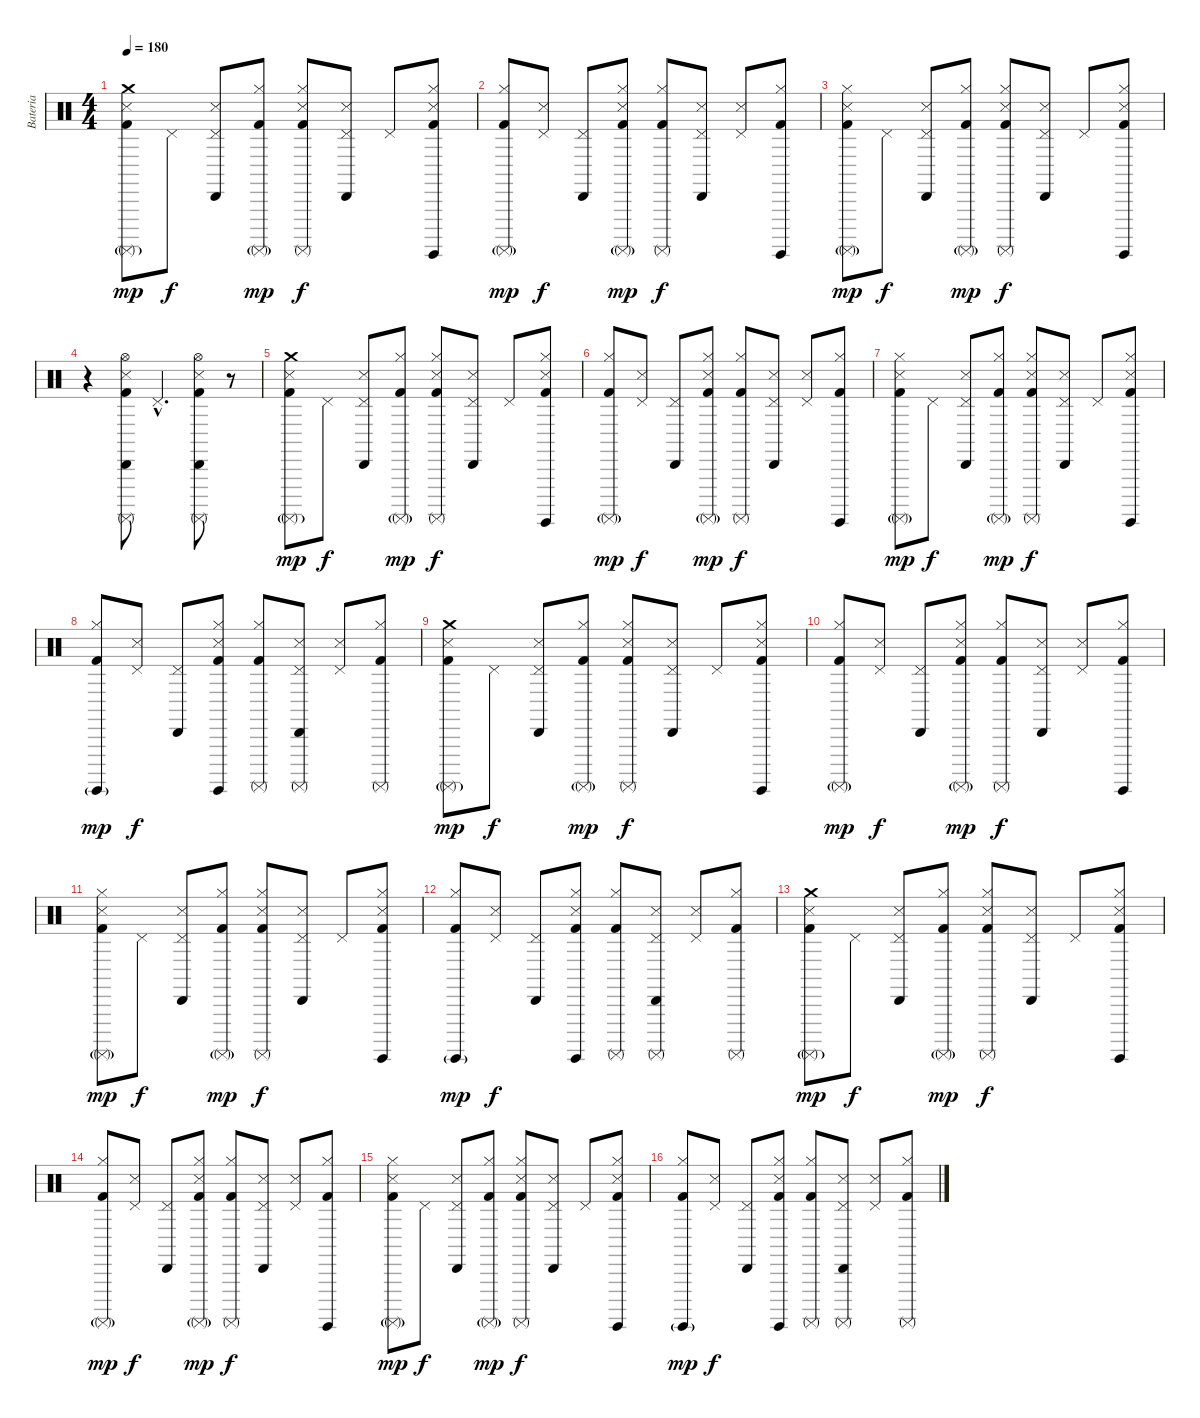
\track ("Bateria" "Bateria") {instrument percussion}
\staff {score}
\articulation defaults
\ts (4 4)
\tempo 180
\clef neutral
\ks c
("Crash medium (hit)" "Snare (side stick) 3" "Surdo (mute)"{g} "Kick (hit) 2").8{dy mp} "Pedal Hi-Hat (hit)".8{dy f} ("Pedal Hi-Hat (hit)" "Cabasa (hit)" "Snare (side stick) 3").8 ("Hi-Hat (closed)" "Surdo (mute)"{g} "Kick (hit) 2").8{dy mp} ("Hi-Hat (closed)" "Snare (side stick) 3" "Surdo (mute)" "Kick (hit) 2").8{dy f} ("Pedal Hi-Hat (hit)" "Cabasa (hit)" "Snare (side stick) 3").8 "Pedal Hi-Hat (hit)".8 ("Hi-Hat (closed)" "Snare (side stick) 3" "Surdo (hit)" "Kick (hit) 2").8 |
("Hi-Hat (closed)" "Surdo (mute)"{g} "Kick (hit) 2").8{dy mp} ("Pedal Hi-Hat (hit)" "Snare (side stick) 3").8{dy f} ("Pedal Hi-Hat (hit)" "Cabasa (hit)").8 ("Hi-Hat (closed)" "Snare (side stick) 3" "Surdo (mute)"{g} "Kick (hit) 2").8{dy mp} ("Hi-Hat (closed)" "Surdo (mute)" "Kick (hit) 2").8{dy f} ("Pedal Hi-Hat (hit)" "Cabasa (hit)" "Snare (side stick) 3").8 ("Pedal Hi-Hat (hit)" "Snare (side stick) 3").8 ("Hi-Hat (closed)" "Surdo (hit)" "Kick (hit) 2").8 |
("Hi-Hat (closed)" "Snare (side stick) 3" "Surdo (mute)"{g} "Kick (hit) 2").8{dy mp} "Pedal Hi-Hat (hit)".8{dy f} ("Pedal Hi-Hat (hit)" "Cabasa (hit)" "Snare (side stick) 3").8 ("Hi-Hat (closed)" "Surdo (mute)"{g} "Kick (hit) 2").8{dy mp} ("Hi-Hat (closed)" "Snare (side stick) 3" "Surdo (mute)" "Kick (hit) 2").8{dy f} ("Pedal Hi-Hat (hit)" "Cabasa (hit)" "Snare (side stick) 3").8 "Pedal Hi-Hat (hit)".8 ("Hi-Hat (closed)" "Snare (side stick) 3" "Surdo (hit)" "Kick (hit) 2").8 |
r.4 ("Hi-Hat (open)" "Cabasa (hit)" "Snare (side stick) 3" "Surdo (mute)" "Kick (hit) 2").8 "Pedal Hi-Hat (hit)"{hac}.4{d} ("Hi-Hat (open)" "Cabasa (hit)" "Snare (side stick) 3" "Surdo (mute)" "Kick (hit) 2").8 r.8 |
("Crash medium (hit)" "Snare (side stick) 3" "Surdo (mute)"{g} "Kick (hit) 2").8{dy mp} "Pedal Hi-Hat (hit)".8{dy f} ("Pedal Hi-Hat (hit)" "Cabasa (hit)" "Snare (side stick) 3").8 ("Hi-Hat (closed)" "Surdo (mute)"{g} "Kick (hit) 2").8{dy mp} ("Hi-Hat (closed)" "Snare (side stick) 3" "Surdo (mute)" "Kick (hit) 2").8{dy f} ("Pedal Hi-Hat (hit)" "Cabasa (hit)" "Snare (side stick) 3").8 "Pedal Hi-Hat (hit)".8 ("Hi-Hat (closed)" "Snare (side stick) 3" "Surdo (hit)" "Kick (hit) 2").8 |
("Hi-Hat (closed)" "Surdo (mute)"{g} "Kick (hit) 2").8{dy mp} ("Pedal Hi-Hat (hit)" "Snare (side stick) 3").8{dy f} ("Pedal Hi-Hat (hit)" "Cabasa (hit)").8 ("Hi-Hat (closed)" "Snare (side stick) 3" "Surdo (mute)"{g} "Kick (hit) 2").8{dy mp} ("Hi-Hat (closed)" "Surdo (mute)" "Kick (hit) 2").8{dy f} ("Pedal Hi-Hat (hit)" "Cabasa (hit)" "Snare (side stick) 3").8 ("Pedal Hi-Hat (hit)" "Snare (side stick) 3").8 ("Hi-Hat (closed)" "Surdo (hit)" "Kick (hit) 2").8 |
("Hi-Hat (closed)" "Snare (side stick) 3" "Surdo (mute)"{g} "Kick (hit) 2").8{dy mp} "Pedal Hi-Hat (hit)".8{dy f} ("Pedal Hi-Hat (hit)" "Cabasa (hit)" "Snare (side stick) 3").8 ("Hi-Hat (closed)" "Surdo (mute)"{g} "Kick (hit) 2").8{dy mp} ("Hi-Hat (closed)" "Snare (side stick) 3" "Surdo (mute)" "Kick (hit) 2").8{dy f} ("Pedal Hi-Hat (hit)" "Cabasa (hit)" "Snare (side stick) 3").8 "Pedal Hi-Hat (hit)".8 ("Hi-Hat (closed)" "Snare (side stick) 3" "Surdo (hit)" "Kick (hit) 2").8 |
("Hi-Hat (closed)" "Surdo (hit)"{g} "Kick (hit) 2").8{dy mp} ("Pedal Hi-Hat (hit)" "Snare (side stick) 3").8{dy f} ("Pedal Hi-Hat (hit)" "Cabasa (hit)").8 ("Hi-Hat (closed)" "Snare (side stick) 3" "Surdo (hit)" "Kick (hit) 2").8 ("Hi-Hat (closed)" "Surdo (mute)" "Kick (hit) 2").8 ("Pedal Hi-Hat (hit)" "Cabasa (hit)" "Snare (side stick) 3" "Surdo (mute)").8 ("Pedal Hi-Hat (hit)" "Snare (side stick) 3").8 ("Hi-Hat (closed)" "Surdo (mute)" "Kick (hit) 2").8 |
("Crash medium (hit)" "Snare (side stick) 3" "Surdo (mute)"{g} "Kick (hit) 2").8{dy mp} "Pedal Hi-Hat (hit)".8{dy f} ("Pedal Hi-Hat (hit)" "Cabasa (hit)" "Snare (side stick) 3").8 ("Hi-Hat (closed)" "Surdo (mute)"{g} "Kick (hit) 2").8{dy mp} ("Hi-Hat (closed)" "Snare (side stick) 3" "Surdo (mute)" "Kick (hit) 2").8{dy f} ("Pedal Hi-Hat (hit)" "Cabasa (hit)" "Snare (side stick) 3").8 "Pedal Hi-Hat (hit)".8 ("Hi-Hat (closed)" "Snare (side stick) 3" "Surdo (hit)" "Kick (hit) 2").8 |
("Hi-Hat (closed)" "Surdo (mute)"{g} "Kick (hit) 2").8{dy mp} ("Pedal Hi-Hat (hit)" "Snare (side stick) 3").8{dy f} ("Pedal Hi-Hat (hit)" "Cabasa (hit)").8 ("Hi-Hat (closed)" "Snare (side stick) 3" "Surdo (mute)"{g} "Kick (hit) 2").8{dy mp} ("Hi-Hat (closed)" "Surdo (mute)" "Kick (hit) 2").8{dy f} ("Pedal Hi-Hat (hit)" "Cabasa (hit)" "Snare (side stick) 3").8 ("Pedal Hi-Hat (hit)" "Snare (side stick) 3").8 ("Hi-Hat (closed)" "Surdo (hit)" "Kick (hit) 2").8 |
("Hi-Hat (closed)" "Snare (side stick) 3" "Surdo (mute)"{g} "Kick (hit) 2").8{dy mp} "Pedal Hi-Hat (hit)".8{dy f} ("Pedal Hi-Hat (hit)" "Cabasa (hit)" "Snare (side stick) 3").8 ("Hi-Hat (closed)" "Surdo (mute)"{g} "Kick (hit) 2").8{dy mp} ("Hi-Hat (closed)" "Snare (side stick) 3" "Surdo (mute)" "Kick (hit) 2").8{dy f} ("Pedal Hi-Hat (hit)" "Cabasa (hit)" "Snare (side stick) 3").8 "Pedal Hi-Hat (hit)".8 ("Hi-Hat (closed)" "Snare (side stick) 3" "Surdo (hit)" "Kick (hit) 2").8 |
("Hi-Hat (closed)" "Surdo (hit)"{g} "Kick (hit) 2").8{dy mp} ("Pedal Hi-Hat (hit)" "Snare (side stick) 3").8{dy f} ("Pedal Hi-Hat (hit)" "Cabasa (hit)").8 ("Hi-Hat (closed)" "Snare (side stick) 3" "Surdo (hit)" "Kick (hit) 2").8 ("Hi-Hat (closed)" "Surdo (mute)" "Kick (hit) 2").8 ("Pedal Hi-Hat (hit)" "Cabasa (hit)" "Snare (side stick) 3" "Surdo (mute)").8 ("Pedal Hi-Hat (hit)" "Snare (side stick) 3").8 ("Hi-Hat (closed)" "Surdo (mute)" "Kick (hit) 2").8 |
("Crash medium (hit)" "Snare (side stick) 3" "Surdo (mute)"{g} "Kick (hit) 2").8{dy mp} "Pedal Hi-Hat (hit)".8{dy f} ("Pedal Hi-Hat (hit)" "Cabasa (hit)" "Snare (side stick) 3").8 ("Hi-Hat (closed)" "Surdo (mute)"{g} "Kick (hit) 2").8{dy mp} ("Hi-Hat (closed)" "Snare (side stick) 3" "Surdo (mute)" "Kick (hit) 2").8{dy f} ("Pedal Hi-Hat (hit)" "Cabasa (hit)" "Snare (side stick) 3").8 "Pedal Hi-Hat (hit)".8 ("Hi-Hat (closed)" "Snare (side stick) 3" "Surdo (hit)" "Kick (hit) 2").8 |
("Hi-Hat (closed)" "Surdo (mute)"{g} "Kick (hit) 2").8{dy mp} ("Pedal Hi-Hat (hit)" "Snare (side stick) 3").8{dy f} ("Pedal Hi-Hat (hit)" "Cabasa (hit)").8 ("Hi-Hat (closed)" "Snare (side stick) 3" "Surdo (mute)"{g} "Kick (hit) 2").8{dy mp} ("Hi-Hat (closed)" "Surdo (mute)" "Kick (hit) 2").8{dy f} ("Pedal Hi-Hat (hit)" "Cabasa (hit)" "Snare (side stick) 3").8 ("Pedal Hi-Hat (hit)" "Snare (side stick) 3").8 ("Hi-Hat (closed)" "Surdo (hit)" "Kick (hit) 2").8 |
("Hi-Hat (closed)" "Snare (side stick) 3" "Surdo (mute)"{g} "Kick (hit) 2").8{dy mp} "Pedal Hi-Hat (hit)".8{dy f} ("Pedal Hi-Hat (hit)" "Cabasa (hit)" "Snare (side stick) 3").8 ("Hi-Hat (closed)" "Surdo (mute)"{g} "Kick (hit) 2").8{dy mp} ("Hi-Hat (closed)" "Snare (side stick) 3" "Surdo (mute)" "Kick (hit) 2").8{dy f} ("Pedal Hi-Hat (hit)" "Cabasa (hit)" "Snare (side stick) 3").8 "Pedal Hi-Hat (hit)".8 ("Hi-Hat (closed)" "Snare (side stick) 3" "Surdo (hit)" "Kick (hit) 2").8 |
("Hi-Hat (closed)" "Surdo (hit)"{g} "Kick (hit) 2").8{dy mp} ("Pedal Hi-Hat (hit)" "Snare (side stick) 3").8{dy f} ("Pedal Hi-Hat (hit)" "Cabasa (hit)").8 ("Hi-Hat (closed)" "Snare (side stick) 3" "Surdo (hit)" "Kick (hit) 2").8 ("Hi-Hat (closed)" "Surdo (mute)" "Kick (hit) 2").8 ("Pedal Hi-Hat (hit)" "Cabasa (hit)" "Snare (side stick) 3" "Surdo (mute)").8 ("Pedal Hi-Hat (hit)" "Snare (side stick) 3").8 ("Hi-Hat (closed)" "Surdo (mute)" "Kick (hit) 2").8
